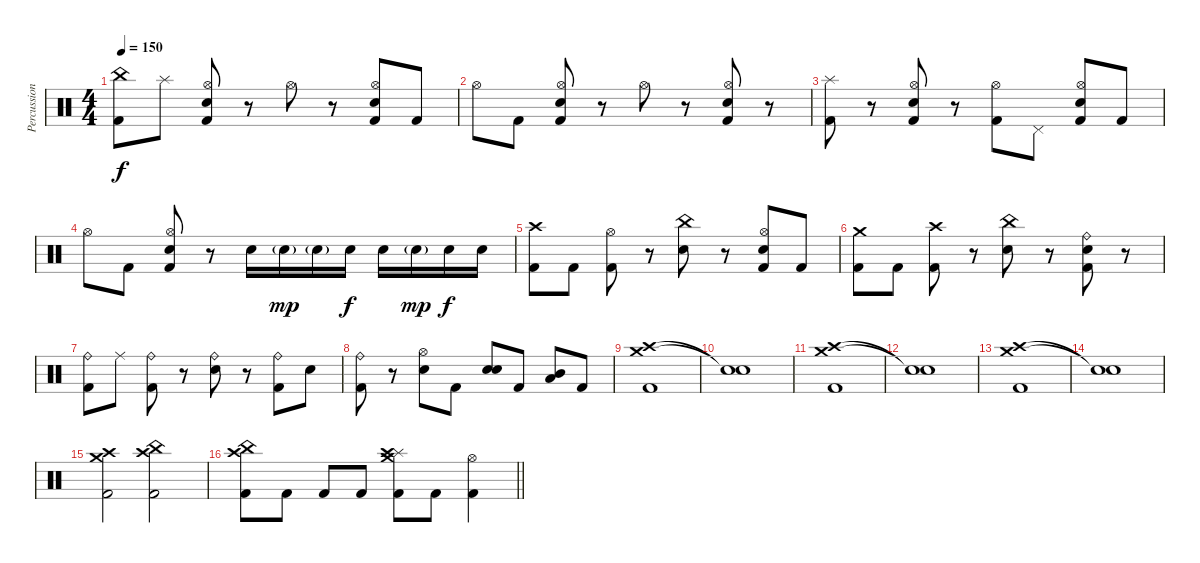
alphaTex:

\track ("Percussion" "Percussion") {instrument percussion}
\staff {score}
\articulation defaults
\ts (4 4)
\tempo 150
\clef neutral
\ks c
("China (hit)" "Kick (hit) 2").8{dy f} "Splash (hit)".8 ("Hi-Hat (open)" "Electric Snare (hit)" "Kick (hit) 2").8 r.8 "Hi-Hat (open)".8 r.8 ("Hi-Hat (open)" "Electric Snare (hit)" "Kick (hit) 2").8 "Kick (hit) 2".8 |
"Hi-Hat (open)".8 "Kick (hit) 2".8 ("Hi-Hat (open)" "Electric Snare (hit)" "Kick (hit) 2").8 r.8 "Hi-Hat (open)".8 r.8 ("Hi-Hat (open)" "Electric Snare (hit)" "Kick (hit) 2").8 r.8 |
("Splash (hit)" "Kick (hit) 2").8 r.8 ("Hi-Hat (open)" "Electric Snare (hit)" "Kick (hit) 2").8 r.8 ("Hi-Hat (open)" "Kick (hit) 2").8 "Pedal Hi-Hat (hit)".8 ("Hi-Hat (open)" "Electric Snare (hit)" "Kick (hit) 2").8 "Kick (hit) 2".8 |
"Hi-Hat (open)".8 "Kick (hit) 2".8 ("Hi-Hat (open)" "Electric Snare (hit)" "Kick (hit) 2").8 r.8 "Electric Snare (hit)".16 "Electric Snare (hit)"{g}.16{dy mp} "Electric Snare (hit)"{g}.16 "Electric Snare (hit)".16{dy f} "Electric Snare (hit)".16 "Electric Snare (hit)"{g}.16{dy mp} "Electric Snare (hit)".16{dy f} "Electric Snare (hit)".16 |
("Crash high (hit)" "Kick (hit) 2").8 "Kick (hit) 2".8 ("Hi-Hat (open)" "Kick (hit) 2").8 r.8 ("China (hit)" "Electric Snare (hit)").8 r.8 ("Hi-Hat (open)" "Electric Snare (hit)" "Kick (hit) 2").8 "Kick (hit) 2".8 |
("Crash medium (hit)" "Kick (hit) 2").8 "Kick (hit) 2".8 ("Crash high (hit)" "Kick (hit) 2").8 r.8 ("China (hit)" "Electric Snare (hit)").8 r.8 ("Ride (bell)" "Electric Snare (hit)" "Kick (hit) 2").8 r.8 |
("Ride (bell)" "Kick (hit) 2").8 "Ride (middle)".8 ("Ride (bell)" "Kick (hit) 2").8 r.8 ("Ride (bell)" "Electric Snare (hit)").8 r.8 ("Ride (bell)" "Kick (hit) 2").8 "Electric Snare (hit)".8 |
("Ride (bell)" "Kick (hit) 2").8 r.8 ("Hi-Hat (open)" "Electric Snare (hit)").8 "Kick (hit) 2".8 ("Electric Snare (hit)" "Electric Snare (hit)").8{bu 240} "Kick (hit) 2".8 ("Mid Tom (hit)" "Low Tom (hit)").8{bu 240} "Kick (hit) 2".8 |
("Crash high (hit)" "Crash medium (hit)" "Kick (hit) 2").1 |
("Snare (hit)"{t} "Snare (hit)"{t}).1 |
("Crash high (hit)" "Crash medium (hit)" "Kick (hit) 2").1 |
("Snare (hit)"{t} "Snare (hit)"{t}).1 |
("Crash high (hit)" "Crash medium (hit)" "Kick (hit) 2").1 |
("Snare (hit)"{t} "Snare (hit)"{t}).1 |
("Crash medium (hit)" "Crash high (hit)" "Kick (hit) 2").2 ("China (hit)" "Crash high (hit)" "Kick (hit) 2").2 |
\barLineRight lightlight
("Crash high (hit)" "China (hit)" "Kick (hit) 2").8 "Kick (hit) 2".8 "Kick (hit) 2".8 "Kick (hit) 2".8 ("Splash (hit)" "Crash medium (hit)" "Crash high (hit)" "Kick (hit) 2").8 "Kick (hit) 2".8 ("Hi-Hat (open)" "Kick (hit) 2").4
